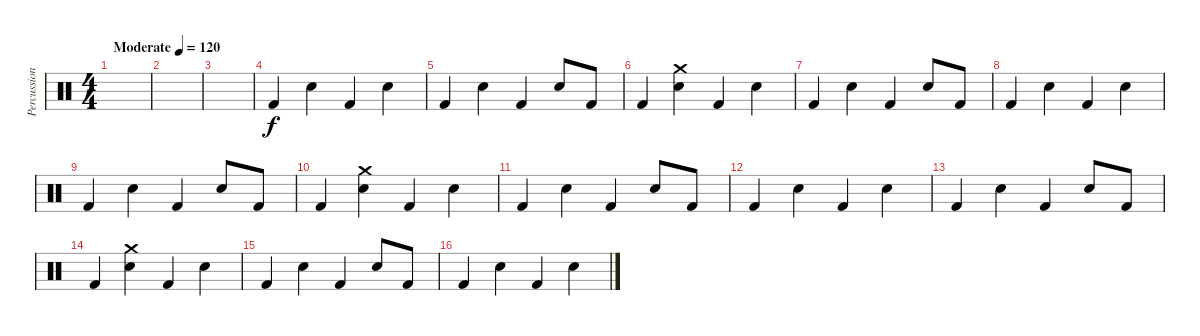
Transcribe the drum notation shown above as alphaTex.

\track ("Percussion" "Percussion") {instrument percussion}
\staff {score}
\articulation defaults
\ts (4 4)
\tempo (120 "Moderate")
\clef neutral
\ks c
|
|
|
"Kick (hit) 2".4 "Snare (hit) 2".4 "Kick (hit) 2".4 "Snare (hit) 2".4 |
"Kick (hit) 2".4 "Snare (hit) 2".4 "Kick (hit) 2".4 "Snare (hit) 2".8 "Kick (hit) 2".8 |
"Kick (hit) 2".4 ("Snare (hit) 2" "Crash medium (hit)").4 "Kick (hit) 2".4 "Snare (hit) 2".4 |
"Kick (hit) 2".4 "Snare (hit) 2".4 "Kick (hit) 2".4 "Snare (hit) 2".8 "Kick (hit) 2".8 |
"Kick (hit) 2".4 "Snare (hit) 2".4 "Kick (hit) 2".4 "Snare (hit) 2".4 |
"Kick (hit) 2".4 "Snare (hit) 2".4 "Kick (hit) 2".4 "Snare (hit) 2".8 "Kick (hit) 2".8 |
"Kick (hit) 2".4 ("Snare (hit) 2" "Crash medium (hit)").4 "Kick (hit) 2".4 "Snare (hit) 2".4 |
"Kick (hit) 2".4 "Snare (hit) 2".4 "Kick (hit) 2".4 "Snare (hit) 2".8 "Kick (hit) 2".8 |
"Kick (hit) 2".4 "Snare (hit) 2".4 "Kick (hit) 2".4 "Snare (hit) 2".4 |
"Kick (hit) 2".4 "Snare (hit) 2".4 "Kick (hit) 2".4 "Snare (hit) 2".8 "Kick (hit) 2".8 |
"Kick (hit) 2".4 ("Snare (hit) 2" "Crash medium (hit)").4 "Kick (hit) 2".4 "Snare (hit) 2".4 |
"Kick (hit) 2".4 "Snare (hit) 2".4 "Kick (hit) 2".4 "Snare (hit) 2".8 "Kick (hit) 2".8 |
"Kick (hit) 2".4 "Snare (hit) 2".4 "Kick (hit) 2".4 "Snare (hit) 2".4
